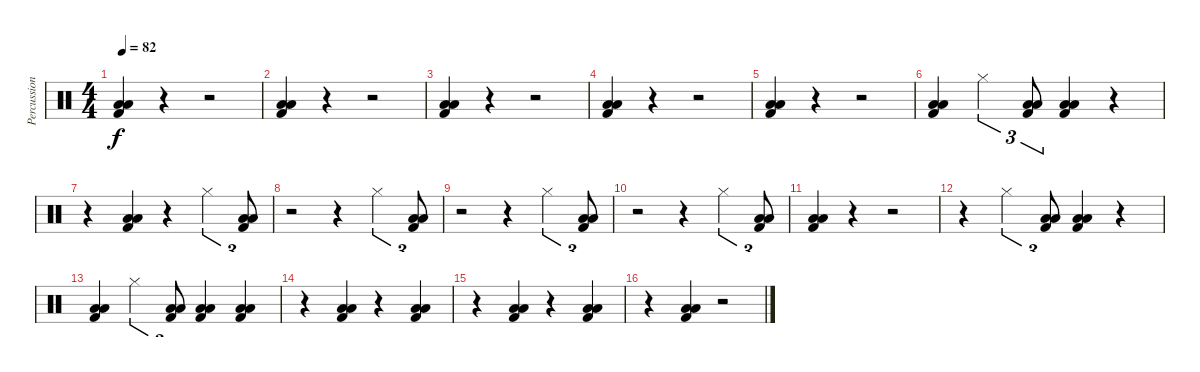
\track ("Percussion" "Percussion") {instrument percussion}
\staff {score}
\articulation defaults
\ts (4 4)
\tempo 82
\clef neutral
\ks c
("Low Tom (hit)" "Kick (hit) 2" "Low Floor Tom (hit)").4{dy f} r.4 r.2 |
("Low Tom (hit)" "Kick (hit) 2" "Low Floor Tom (hit)").4 r.4 r.2 |
("Low Tom (hit)" "Kick (hit) 2" "Low Floor Tom (hit)").4 r.4 r.2 |
("Low Tom (hit)" "Kick (hit) 2" "Low Floor Tom (hit)").4 r.4 r.2 |
("Low Tom (hit)" "Kick (hit) 2" "Low Floor Tom (hit)").4 r.4 r.2 |
("Low Tom (hit)" "Kick (hit) 2" "Low Floor Tom (hit)").4 "Hi-Hat (closed)".4{tu (3 2)} ("Low Tom (hit)" "Kick (hit) 2" "Low Floor Tom (hit)").8{tu (3 2)} ("Low Tom (hit)" "Kick (hit) 2" "Low Floor Tom (hit)").4 r.4 |
r.4 ("Low Tom (hit)" "Kick (hit) 2" "Low Floor Tom (hit)").4 r.4 "Hi-Hat (closed)".4{tu (3 2)} ("Low Tom (hit)" "Kick (hit) 2" "Low Floor Tom (hit)").8{tu (3 2)} |
r.2 r.4 "Hi-Hat (closed)".4{tu (3 2)} ("Low Tom (hit)" "Kick (hit) 2" "Low Floor Tom (hit)").8{tu (3 2)} |
r.2 r.4 "Hi-Hat (closed)".4{tu (3 2)} ("Low Tom (hit)" "Kick (hit) 2" "Low Floor Tom (hit)").8{tu (3 2)} |
r.2 r.4 "Hi-Hat (closed)".4{tu (3 2)} ("Low Tom (hit)" "Kick (hit) 2" "Low Floor Tom (hit)").8{tu (3 2)} |
("Low Tom (hit)" "Kick (hit) 2" "Low Floor Tom (hit)").4 r.4 r.2 |
r.4 "Hi-Hat (closed)".4{tu (3 2)} ("Low Tom (hit)" "Kick (hit) 2" "Low Floor Tom (hit)").8{tu (3 2)} ("Low Tom (hit)" "Kick (hit) 2" "Low Floor Tom (hit)").4 r.4 |
("Low Tom (hit)" "Kick (hit) 2" "Low Floor Tom (hit)").4 "Hi-Hat (closed)".4{tu (3 2)} ("Low Tom (hit)" "Kick (hit) 2" "Low Floor Tom (hit)").8{tu (3 2)} ("Low Tom (hit)" "Kick (hit) 2" "Low Floor Tom (hit)").4 ("Low Tom (hit)" "Kick (hit) 2" "Low Floor Tom (hit)").4 |
r.4 ("Low Tom (hit)" "Kick (hit) 2" "Low Floor Tom (hit)").4 r.4 ("Low Tom (hit)" "Kick (hit) 2" "Low Floor Tom (hit)").4 |
r.4 ("Low Tom (hit)" "Kick (hit) 2" "Low Floor Tom (hit)").4 r.4 ("Low Tom (hit)" "Kick (hit) 2" "Low Floor Tom (hit)").4 |
r.4 ("Low Tom (hit)" "Kick (hit) 2" "Low Floor Tom (hit)").4 r.2
